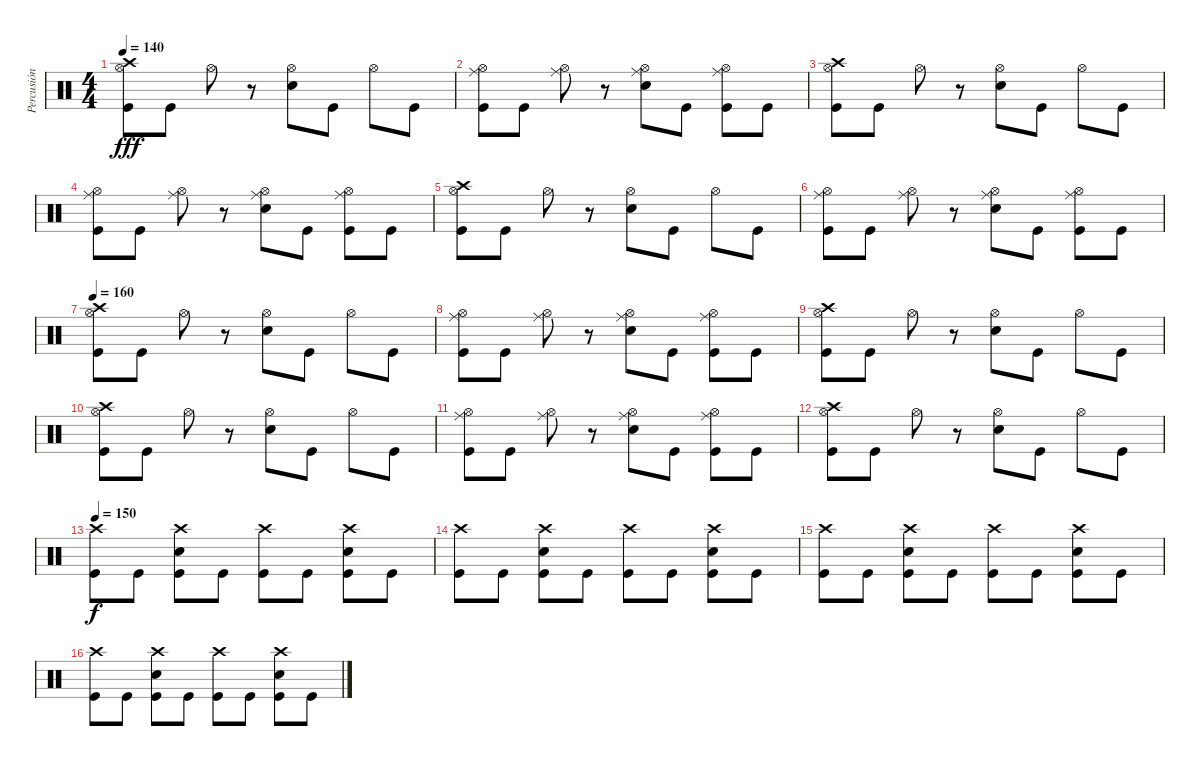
\track ("Percusión  Gabriela" "Percusión ") {instrument percussion}
\staff {score}
\articulation defaults
\ts (4 4)
\tempo 140
\clef neutral
\ks c
("Crash high (hit)" "Hi-Hat (open)" "Kick (hit)").8{dy fff} "Kick (hit)".8 "Hi-Hat (open)".8 r.8 ("Hi-Hat (open)" "Snare (hit) 2").8 "Kick (hit)".8 "Hi-Hat (open)".8 "Kick (hit)".8 |
("Hi-Hat (open)" "Kick (hit)" "Ride (middle)").8 "Kick (hit)".8 ("Hi-Hat (open)" "Ride (middle)").8 r.8 ("Hi-Hat (open)" "Ride (middle)" "Snare (hit) 2").8 "Kick (hit)".8 ("Hi-Hat (open)" "Ride (middle)" "Kick (hit)").8 "Kick (hit)".8 |
("Crash high (hit)" "Hi-Hat (open)" "Kick (hit)").8 "Kick (hit)".8 "Hi-Hat (open)".8 r.8 ("Hi-Hat (open)" "Snare (hit) 2").8 "Kick (hit)".8 "Hi-Hat (open)".8 "Kick (hit)".8 |
("Hi-Hat (open)" "Kick (hit)" "Ride (middle)").8 "Kick (hit)".8 ("Hi-Hat (open)" "Ride (middle)").8 r.8 ("Hi-Hat (open)" "Ride (middle)" "Snare (hit) 2").8 "Kick (hit)".8 ("Hi-Hat (open)" "Ride (middle)" "Kick (hit)").8 "Kick (hit)".8 |
("Crash high (hit)" "Hi-Hat (open)" "Kick (hit)").8 "Kick (hit)".8 "Hi-Hat (open)".8 r.8 ("Hi-Hat (open)" "Snare (hit) 2").8 "Kick (hit)".8 "Hi-Hat (open)".8 "Kick (hit)".8 |
("Hi-Hat (open)" "Kick (hit)" "Ride (middle)").8 "Kick (hit)".8 ("Hi-Hat (open)" "Ride (middle)").8 r.8 ("Hi-Hat (open)" "Ride (middle)" "Snare (hit) 2").8 "Kick (hit)".8 ("Hi-Hat (open)" "Ride (middle)" "Kick (hit)").8 "Kick (hit)".8 |
\tempo 160
("Crash high (hit)" "Hi-Hat (open)" "Kick (hit)").8 "Kick (hit)".8 "Hi-Hat (open)".8 r.8 ("Hi-Hat (open)" "Snare (hit) 2").8 "Kick (hit)".8 "Hi-Hat (open)".8 "Kick (hit)".8 |
("Hi-Hat (open)" "Kick (hit)" "Ride (middle)").8 "Kick (hit)".8 ("Hi-Hat (open)" "Ride (middle)").8 r.8 ("Hi-Hat (open)" "Ride (middle)" "Snare (hit) 2").8 "Kick (hit)".8 ("Hi-Hat (open)" "Ride (middle)" "Kick (hit)").8 "Kick (hit)".8 |
("Crash high (hit)" "Hi-Hat (open)" "Kick (hit)").8 "Kick (hit)".8 "Hi-Hat (open)".8 r.8 ("Hi-Hat (open)" "Snare (hit) 2").8 "Kick (hit)".8 "Hi-Hat (open)".8 "Kick (hit)".8 |
("Crash high (hit)" "Hi-Hat (open)" "Kick (hit)").8 "Kick (hit)".8 "Hi-Hat (open)".8 r.8 ("Hi-Hat (open)" "Snare (hit) 2").8 "Kick (hit)".8 "Hi-Hat (open)".8 "Kick (hit)".8 |
("Hi-Hat (open)" "Kick (hit)" "Ride (middle)").8 "Kick (hit)".8 ("Hi-Hat (open)" "Ride (middle)").8 r.8 ("Hi-Hat (open)" "Ride (middle)" "Snare (hit) 2").8 "Kick (hit)".8 ("Hi-Hat (open)" "Ride (middle)" "Kick (hit)").8 "Kick (hit)".8 |
("Crash high (hit)" "Hi-Hat (open)" "Kick (hit)").8 "Kick (hit)".8 "Hi-Hat (open)".8 r.8 ("Hi-Hat (open)" "Snare (hit) 2").8 "Kick (hit)".8 "Hi-Hat (open)".8 "Kick (hit)".8 |
\tempo 150
("Crash high (hit)" "Kick (hit)").8{dy f} "Kick (hit)".8 ("Snare (hit) 2" "Crash high (hit)" "Kick (hit)").8 "Kick (hit)".8 ("Crash high (hit)" "Kick (hit)").8 "Kick (hit)".8 ("Snare (hit) 2" "Crash high (hit)" "Kick (hit)").8 "Kick (hit)".8 |
("Crash high (hit)" "Kick (hit)").8 "Kick (hit)".8 ("Snare (hit) 2" "Crash high (hit)" "Kick (hit)").8 "Kick (hit)".8 ("Crash high (hit)" "Kick (hit)").8 "Kick (hit)".8 ("Snare (hit) 2" "Crash high (hit)" "Kick (hit)").8 "Kick (hit)".8 |
("Crash high (hit)" "Kick (hit)").8 "Kick (hit)".8 ("Snare (hit) 2" "Crash high (hit)" "Kick (hit)").8 "Kick (hit)".8 ("Crash high (hit)" "Kick (hit)").8 "Kick (hit)".8 ("Snare (hit) 2" "Crash high (hit)" "Kick (hit)").8 "Kick (hit)".8 |
("Crash high (hit)" "Kick (hit)").8 "Kick (hit)".8 ("Snare (hit) 2" "Crash high (hit)" "Kick (hit)").8 "Kick (hit)".8 ("Crash high (hit)" "Kick (hit)").8 "Kick (hit)".8 ("Snare (hit) 2" "Crash high (hit)" "Kick (hit)").8 "Kick (hit)".8
